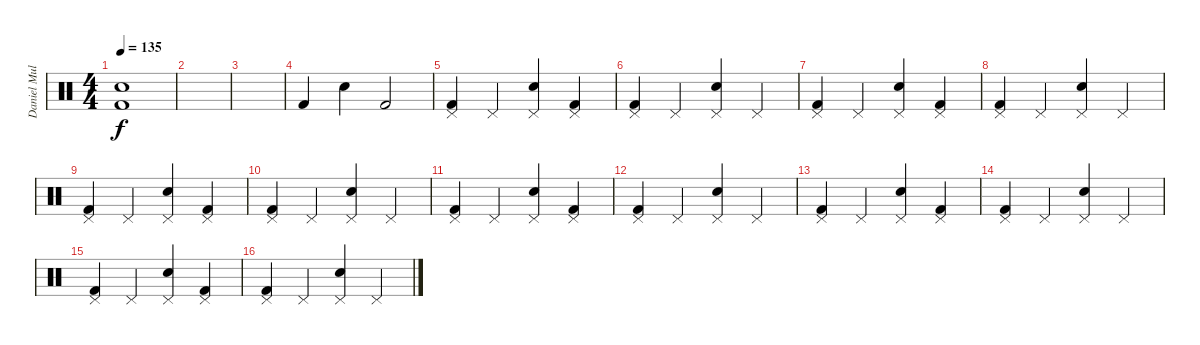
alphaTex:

\track ("Daniel Mullback" "Daniel Mul") {instrument percussion}
\staff {score}
\articulation defaults
\ts (4 4)
\tempo 135
\clef neutral
\ks c
("Snare (hit) 2" "Kick (hit) 2").1{dy f} |
|
|
"Kick (hit) 2".4 "Snare (hit) 2".4 "Kick (hit) 2".2 |
("Pedal Hi-Hat (hit)" "Kick (hit) 2").4 "Pedal Hi-Hat (hit)".4 ("Pedal Hi-Hat (hit)" "Snare (hit) 2").4 ("Pedal Hi-Hat (hit)" "Kick (hit) 2").4 |
("Pedal Hi-Hat (hit)" "Kick (hit) 2").4 "Pedal Hi-Hat (hit)".4 ("Pedal Hi-Hat (hit)" "Snare (hit) 2").4 "Pedal Hi-Hat (hit)".4 |
("Pedal Hi-Hat (hit)" "Kick (hit) 2").4 "Pedal Hi-Hat (hit)".4 ("Pedal Hi-Hat (hit)" "Snare (hit) 2").4 ("Pedal Hi-Hat (hit)" "Kick (hit) 2").4 |
("Pedal Hi-Hat (hit)" "Kick (hit) 2").4 "Pedal Hi-Hat (hit)".4 ("Pedal Hi-Hat (hit)" "Snare (hit) 2").4 "Pedal Hi-Hat (hit)".4 |
("Pedal Hi-Hat (hit)" "Kick (hit) 2").4 "Pedal Hi-Hat (hit)".4 ("Pedal Hi-Hat (hit)" "Snare (hit) 2").4 ("Pedal Hi-Hat (hit)" "Kick (hit) 2").4 |
("Pedal Hi-Hat (hit)" "Kick (hit) 2").4 "Pedal Hi-Hat (hit)".4 ("Pedal Hi-Hat (hit)" "Snare (hit) 2").4 "Pedal Hi-Hat (hit)".4 |
("Pedal Hi-Hat (hit)" "Kick (hit) 2").4 "Pedal Hi-Hat (hit)".4 ("Pedal Hi-Hat (hit)" "Snare (hit) 2").4 ("Pedal Hi-Hat (hit)" "Kick (hit) 2").4 |
("Pedal Hi-Hat (hit)" "Kick (hit) 2").4 "Pedal Hi-Hat (hit)".4 ("Pedal Hi-Hat (hit)" "Snare (hit) 2").4 "Pedal Hi-Hat (hit)".4 |
("Pedal Hi-Hat (hit)" "Kick (hit) 2").4 "Pedal Hi-Hat (hit)".4 ("Pedal Hi-Hat (hit)" "Snare (hit) 2").4 ("Pedal Hi-Hat (hit)" "Kick (hit) 2").4 |
("Pedal Hi-Hat (hit)" "Kick (hit) 2").4 "Pedal Hi-Hat (hit)".4 ("Pedal Hi-Hat (hit)" "Snare (hit) 2").4 "Pedal Hi-Hat (hit)".4 |
("Pedal Hi-Hat (hit)" "Kick (hit) 2").4 "Pedal Hi-Hat (hit)".4 ("Pedal Hi-Hat (hit)" "Snare (hit) 2").4 ("Pedal Hi-Hat (hit)" "Kick (hit) 2").4 |
("Pedal Hi-Hat (hit)" "Kick (hit) 2").4 "Pedal Hi-Hat (hit)".4 ("Pedal Hi-Hat (hit)" "Snare (hit) 2").4 "Pedal Hi-Hat (hit)".4
